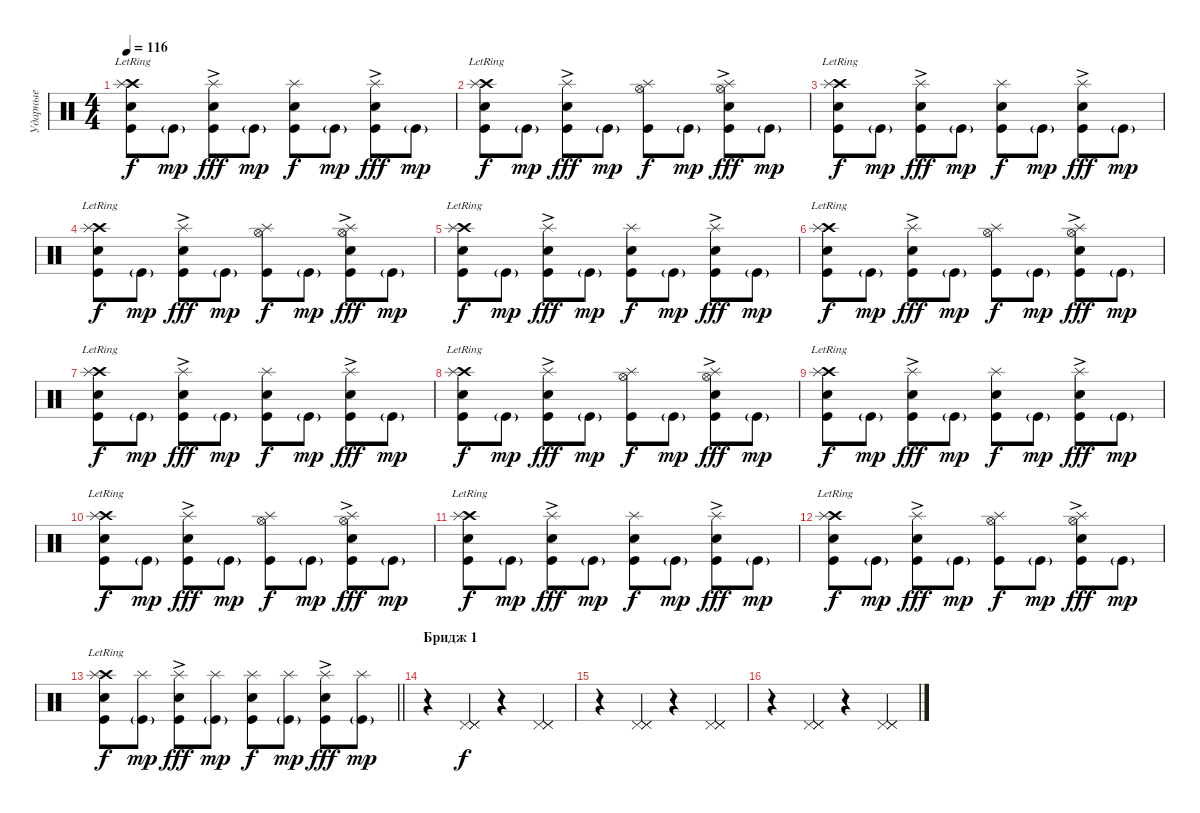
\track ("Ударные" "Ударные") {instrument percussion}
\staff {score}
\articulation defaults
\ts (4 4)
\tempo 116
\clef neutral
\ks c
("Crash high (hit)"{lr} "Splash (hit)" "Snare (hit) 2" "Kick (hit)"{lr}).8{dy f} "Kick (hit)"{g}.8{dy mp} ("Splash (hit)" "Electric Snare (hit)"{ac} "Kick (hit)").8{dy fff} "Kick (hit)"{g}.8{dy mp} ("Splash (hit)" "Snare (hit) 2" "Kick (hit)").8{dy f} "Kick (hit)"{g}.8{dy mp} ("Splash (hit)" "Electric Snare (hit)"{ac} "Kick (hit)").8{dy fff} "Kick (hit)"{g}.8{dy mp} |
("Crash high (hit)"{lr} "Splash (hit)" "Snare (hit) 2" "Kick (hit)"{lr}).8{dy f} "Kick (hit)"{g}.8{dy mp} ("Splash (hit)" "Electric Snare (hit)"{ac} "Kick (hit)").8{dy fff} "Kick (hit)"{g}.8{dy mp} ("Splash (hit)" "Hi-Hat (open)" "Kick (hit)").8{dy f} "Kick (hit)"{g}.8{dy mp} ("Splash (hit)" "Hi-Hat (open)" "Electric Snare (hit)"{ac} "Kick (hit)").8{dy fff} "Kick (hit)"{g}.8{dy mp} |
("Crash high (hit)"{lr} "Splash (hit)" "Snare (hit) 2" "Kick (hit)"{lr}).8{dy f} "Kick (hit)"{g}.8{dy mp} ("Splash (hit)" "Electric Snare (hit)"{ac} "Kick (hit)").8{dy fff} "Kick (hit)"{g}.8{dy mp} ("Splash (hit)" "Snare (hit) 2" "Kick (hit)").8{dy f} "Kick (hit)"{g}.8{dy mp} ("Splash (hit)" "Electric Snare (hit)"{ac} "Kick (hit)").8{dy fff} "Kick (hit)"{g}.8{dy mp} |
("Crash high (hit)"{lr} "Splash (hit)" "Snare (hit) 2" "Kick (hit)"{lr}).8{dy f} "Kick (hit)"{g}.8{dy mp} ("Splash (hit)" "Electric Snare (hit)"{ac} "Kick (hit)").8{dy fff} "Kick (hit)"{g}.8{dy mp} ("Splash (hit)" "Hi-Hat (open)" "Kick (hit)").8{dy f} "Kick (hit)"{g}.8{dy mp} ("Splash (hit)" "Hi-Hat (open)" "Electric Snare (hit)"{ac} "Kick (hit)").8{dy fff} "Kick (hit)"{g}.8{dy mp} |
("Crash high (hit)"{lr} "Splash (hit)" "Snare (hit) 2" "Kick (hit)"{lr}).8{dy f} "Kick (hit)"{g}.8{dy mp} ("Splash (hit)" "Electric Snare (hit)"{ac} "Kick (hit)").8{dy fff} "Kick (hit)"{g}.8{dy mp} ("Splash (hit)" "Snare (hit) 2" "Kick (hit)").8{dy f} "Kick (hit)"{g}.8{dy mp} ("Splash (hit)" "Electric Snare (hit)"{ac} "Kick (hit)").8{dy fff} "Kick (hit)"{g}.8{dy mp} |
("Crash high (hit)"{lr} "Splash (hit)" "Snare (hit) 2" "Kick (hit)"{lr}).8{dy f} "Kick (hit)"{g}.8{dy mp} ("Splash (hit)" "Electric Snare (hit)"{ac} "Kick (hit)").8{dy fff} "Kick (hit)"{g}.8{dy mp} ("Splash (hit)" "Hi-Hat (open)" "Kick (hit)").8{dy f} "Kick (hit)"{g}.8{dy mp} ("Splash (hit)" "Hi-Hat (open)" "Electric Snare (hit)"{ac} "Kick (hit)").8{dy fff} "Kick (hit)"{g}.8{dy mp} |
("Crash high (hit)"{lr} "Splash (hit)" "Snare (hit) 2" "Kick (hit)"{lr}).8{dy f} "Kick (hit)"{g}.8{dy mp} ("Splash (hit)" "Electric Snare (hit)"{ac} "Kick (hit)").8{dy fff} "Kick (hit)"{g}.8{dy mp} ("Splash (hit)" "Snare (hit) 2" "Kick (hit)").8{dy f} "Kick (hit)"{g}.8{dy mp} ("Splash (hit)" "Electric Snare (hit)"{ac} "Kick (hit)").8{dy fff} "Kick (hit)"{g}.8{dy mp} |
("Crash high (hit)"{lr} "Splash (hit)" "Snare (hit) 2" "Kick (hit)"{lr}).8{dy f} "Kick (hit)"{g}.8{dy mp} ("Splash (hit)" "Electric Snare (hit)"{ac} "Kick (hit)").8{dy fff} "Kick (hit)"{g}.8{dy mp} ("Splash (hit)" "Hi-Hat (open)" "Kick (hit)").8{dy f} "Kick (hit)"{g}.8{dy mp} ("Splash (hit)" "Hi-Hat (open)" "Electric Snare (hit)"{ac} "Kick (hit)").8{dy fff} "Kick (hit)"{g}.8{dy mp} |
("Crash high (hit)"{lr} "Splash (hit)" "Snare (hit) 2" "Kick (hit)"{lr}).8{dy f} "Kick (hit)"{g}.8{dy mp} ("Splash (hit)" "Electric Snare (hit)"{ac} "Kick (hit)").8{dy fff} "Kick (hit)"{g}.8{dy mp} ("Splash (hit)" "Snare (hit) 2" "Kick (hit)").8{dy f} "Kick (hit)"{g}.8{dy mp} ("Splash (hit)" "Electric Snare (hit)"{ac} "Kick (hit)").8{dy fff} "Kick (hit)"{g}.8{dy mp} |
("Crash high (hit)"{lr} "Splash (hit)" "Snare (hit) 2" "Kick (hit)"{lr}).8{dy f} "Kick (hit)"{g}.8{dy mp} ("Splash (hit)" "Electric Snare (hit)"{ac} "Kick (hit)").8{dy fff} "Kick (hit)"{g}.8{dy mp} ("Splash (hit)" "Hi-Hat (open)" "Kick (hit)").8{dy f} "Kick (hit)"{g}.8{dy mp} ("Splash (hit)" "Hi-Hat (open)" "Electric Snare (hit)"{ac} "Kick (hit)").8{dy fff} "Kick (hit)"{g}.8{dy mp} |
("Crash high (hit)"{lr} "Splash (hit)" "Snare (hit) 2" "Kick (hit)"{lr}).8{dy f} "Kick (hit)"{g}.8{dy mp} ("Splash (hit)" "Electric Snare (hit)"{ac} "Kick (hit)").8{dy fff} "Kick (hit)"{g}.8{dy mp} ("Splash (hit)" "Snare (hit) 2" "Kick (hit)").8{dy f} "Kick (hit)"{g}.8{dy mp} ("Splash (hit)" "Electric Snare (hit)"{ac} "Kick (hit)").8{dy fff} "Kick (hit)"{g}.8{dy mp} |
("Crash high (hit)"{lr} "Splash (hit)" "Snare (hit) 2" "Kick (hit)"{lr}).8{dy f} "Kick (hit)"{g}.8{dy mp} ("Splash (hit)" "Electric Snare (hit)"{ac} "Kick (hit)").8{dy fff} "Kick (hit)"{g}.8{dy mp} ("Splash (hit)" "Hi-Hat (open)" "Kick (hit)").8{dy f} "Kick (hit)"{g}.8{dy mp} ("Splash (hit)" "Hi-Hat (open)" "Electric Snare (hit)"{ac} "Kick (hit)").8{dy fff} "Kick (hit)"{g}.8{dy mp} |
\barLineRight lightlight
("Crash high (hit)"{lr} "Splash (hit)" "Snare (hit) 2" "Kick (hit)"{lr}).8{dy f} ("Splash (hit)" "Kick (hit)"{g}).8{dy mp} ("Splash (hit)" "Electric Snare (hit)"{ac} "Kick (hit)").8{dy fff} ("Splash (hit)" "Kick (hit)"{g}).8{dy mp} ("Splash (hit)" "Snare (hit) 2" "Kick (hit)").8{dy f} ("Splash (hit)" "Kick (hit)"{g}).8{dy mp} ("Splash (hit)" "Electric Snare (hit)"{ac} "Kick (hit)").8{dy fff} ("Splash (hit)" "Kick (hit)"{g}).8{dy mp} |
\section ("" "Бридж 1")
r.4{volume 16} ("Pedal Hi-Hat (hit)" "Pedal Hi-Hat (hit)" "Pedal Hi-Hat (hit)").4{dy f} r.4 ("Pedal Hi-Hat (hit)" "Pedal Hi-Hat (hit)" "Pedal Hi-Hat (hit)").4 |
r.4 ("Pedal Hi-Hat (hit)" "Pedal Hi-Hat (hit)" "Pedal Hi-Hat (hit)").4 r.4 ("Pedal Hi-Hat (hit)" "Pedal Hi-Hat (hit)" "Pedal Hi-Hat (hit)").4 |
r.4{volume 16} ("Pedal Hi-Hat (hit)" "Pedal Hi-Hat (hit)" "Pedal Hi-Hat (hit)").4 r.4 ("Pedal Hi-Hat (hit)" "Pedal Hi-Hat (hit)" "Pedal Hi-Hat (hit)").4
